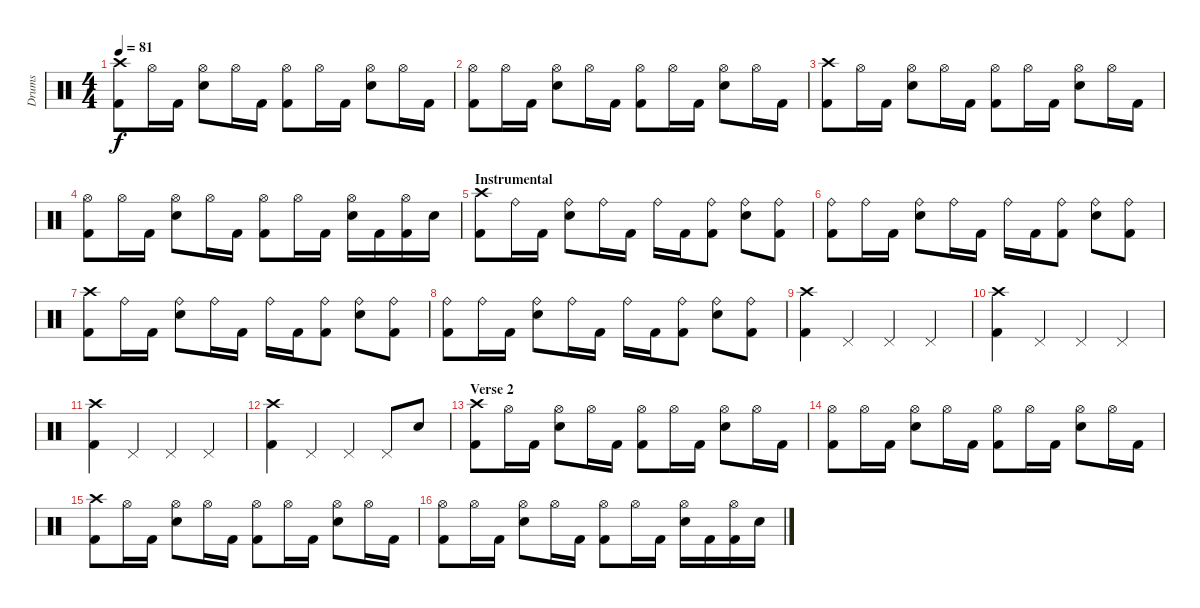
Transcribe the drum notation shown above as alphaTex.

\track ("Drums" "Drums") {instrument percussion}
\staff {score}
\articulation defaults
\ts (4 4)
\tempo 81
\clef neutral
\ks c
("Crash high (hit)" "Kick (hit) 2").8{dy f} "Hi-Hat (open)".16 "Kick (hit) 2".16 ("Hi-Hat (open)" "Snare (hit) 2").8 "Hi-Hat (open)".16 "Kick (hit) 2".16 ("Hi-Hat (open)" "Kick (hit) 2").8 "Hi-Hat (open)".16 "Kick (hit) 2".16 ("Hi-Hat (open)" "Snare (hit) 2").8 "Hi-Hat (open)".16 "Kick (hit) 2".16 |
("Hi-Hat (open)" "Kick (hit) 2").8 "Hi-Hat (open)".16 "Kick (hit) 2".16 ("Hi-Hat (open)" "Snare (hit) 2").8 "Hi-Hat (open)".16 "Kick (hit) 2".16 ("Hi-Hat (open)" "Kick (hit) 2").8 "Hi-Hat (open)".16 "Kick (hit) 2".16 ("Hi-Hat (open)" "Snare (hit) 2").8 "Hi-Hat (open)".16 "Kick (hit) 2".16 |
("Crash high (hit)" "Kick (hit) 2").8 "Hi-Hat (open)".16 "Kick (hit) 2".16 ("Hi-Hat (open)" "Snare (hit) 2").8 "Hi-Hat (open)".16 "Kick (hit) 2".16 ("Hi-Hat (open)" "Kick (hit) 2").8 "Hi-Hat (open)".16 "Kick (hit) 2".16 ("Hi-Hat (open)" "Snare (hit) 2").8 "Hi-Hat (open)".16 "Kick (hit) 2".16 |
("Hi-Hat (open)" "Kick (hit) 2").8 "Hi-Hat (open)".16 "Kick (hit) 2".16 ("Hi-Hat (open)" "Snare (hit) 2").8 "Hi-Hat (open)".16 "Kick (hit) 2".16 ("Hi-Hat (open)" "Kick (hit) 2").8 "Hi-Hat (open)".16 "Kick (hit) 2".16 ("Hi-Hat (open)" "Snare (hit) 2").16 "Kick (hit) 2".16 ("Hi-Hat (open)" "Kick (hit) 2").16 "Snare (hit) 2".16 |
\section ("" "Instrumental")
("Crash high (hit)" "Kick (hit) 2").8 "Ride (bell)".16 "Kick (hit) 2".16 ("Ride (bell)" "Snare (hit) 2").8 "Ride (bell)".16 "Kick (hit) 2".16 "Ride (bell)".16 "Kick (hit) 2".16 ("Ride (bell)" "Kick (hit) 2").8 ("Ride (bell)" "Snare (hit) 2").8 ("Ride (bell)" "Kick (hit) 2").8 |
("Ride (bell)" "Kick (hit) 2").8 "Ride (bell)".16 "Kick (hit) 2".16 ("Ride (bell)" "Snare (hit) 2").8 "Ride (bell)".16 "Kick (hit) 2".16 "Ride (bell)".16 "Kick (hit) 2".16 ("Ride (bell)" "Kick (hit) 2").8 ("Ride (bell)" "Snare (hit) 2").8 ("Ride (bell)" "Kick (hit) 2").8 |
("Crash high (hit)" "Kick (hit) 2").8 "Ride (bell)".16 "Kick (hit) 2".16 ("Ride (bell)" "Snare (hit) 2").8 "Ride (bell)".16 "Kick (hit) 2".16 "Ride (bell)".16 "Kick (hit) 2".16 ("Ride (bell)" "Kick (hit) 2").8 ("Ride (bell)" "Snare (hit) 2").8 ("Ride (bell)" "Kick (hit) 2").8 |
("Ride (bell)" "Kick (hit) 2").8 "Ride (bell)".16 "Kick (hit) 2".16 ("Ride (bell)" "Snare (hit) 2").8 "Ride (bell)".16 "Kick (hit) 2".16 "Ride (bell)".16 "Kick (hit) 2".16 ("Ride (bell)" "Kick (hit) 2").8 ("Ride (bell)" "Snare (hit) 2").8 ("Ride (bell)" "Kick (hit) 2").8 |
("Crash high (hit)" "Kick (hit) 2").4 "Pedal Hi-Hat (hit)".4 "Pedal Hi-Hat (hit)".4 "Pedal Hi-Hat (hit)".4 |
("Crash high (hit)" "Kick (hit) 2").4 "Pedal Hi-Hat (hit)".4 "Pedal Hi-Hat (hit)".4 "Pedal Hi-Hat (hit)".4 |
("Crash high (hit)" "Kick (hit) 2").4 "Pedal Hi-Hat (hit)".4 "Pedal Hi-Hat (hit)".4 "Pedal Hi-Hat (hit)".4 |
("Crash high (hit)" "Kick (hit) 2").4 "Pedal Hi-Hat (hit)".4 "Pedal Hi-Hat (hit)".4 "Pedal Hi-Hat (hit)".8 "Snare (hit) 2".8 |
\section ("" "Verse 2")
("Crash high (hit)" "Kick (hit) 2").8 "Hi-Hat (open)".16 "Kick (hit) 2".16 ("Hi-Hat (open)" "Snare (hit) 2").8 "Hi-Hat (open)".16 "Kick (hit) 2".16 ("Hi-Hat (open)" "Kick (hit) 2").8 "Hi-Hat (open)".16 "Kick (hit) 2".16 ("Hi-Hat (open)" "Snare (hit) 2").8 "Hi-Hat (open)".16 "Kick (hit) 2".16 |
("Hi-Hat (open)" "Kick (hit) 2").8 "Hi-Hat (open)".16 "Kick (hit) 2".16 ("Hi-Hat (open)" "Snare (hit) 2").8 "Hi-Hat (open)".16 "Kick (hit) 2".16 ("Hi-Hat (open)" "Kick (hit) 2").8 "Hi-Hat (open)".16 "Kick (hit) 2".16 ("Hi-Hat (open)" "Snare (hit) 2").8 "Hi-Hat (open)".16 "Kick (hit) 2".16 |
("Crash high (hit)" "Kick (hit) 2").8 "Hi-Hat (open)".16 "Kick (hit) 2".16 ("Hi-Hat (open)" "Snare (hit) 2").8 "Hi-Hat (open)".16 "Kick (hit) 2".16 ("Hi-Hat (open)" "Kick (hit) 2").8 "Hi-Hat (open)".16 "Kick (hit) 2".16 ("Hi-Hat (open)" "Snare (hit) 2").8 "Hi-Hat (open)".16 "Kick (hit) 2".16 |
("Hi-Hat (open)" "Kick (hit) 2").8 "Hi-Hat (open)".16 "Kick (hit) 2".16 ("Hi-Hat (open)" "Snare (hit) 2").8 "Hi-Hat (open)".16 "Kick (hit) 2".16 ("Hi-Hat (open)" "Kick (hit) 2").8 "Hi-Hat (open)".16 "Kick (hit) 2".16 ("Hi-Hat (open)" "Snare (hit) 2").16 "Kick (hit) 2".16 ("Hi-Hat (open)" "Kick (hit) 2").16 "Snare (hit) 2".16
